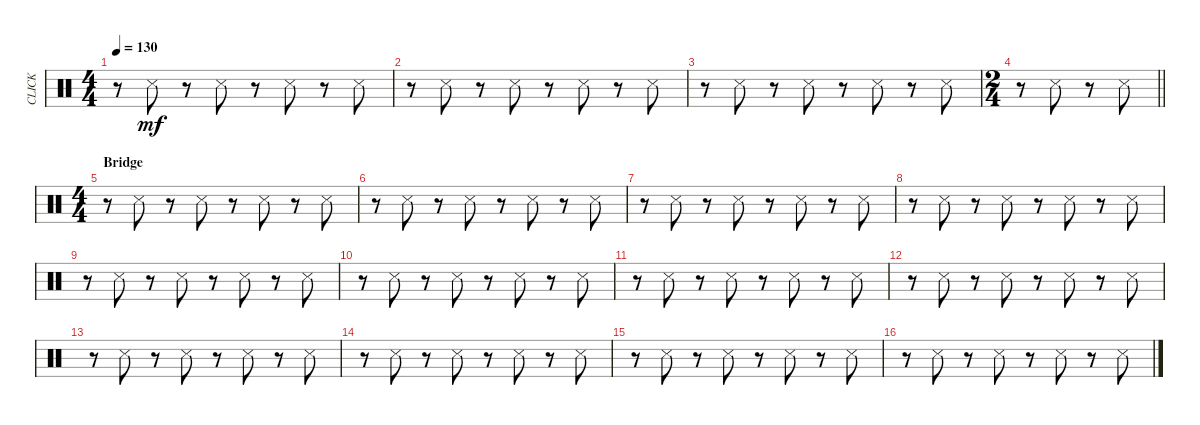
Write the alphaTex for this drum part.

\track ("CLICK" "CLICK") {instrument percussion}
\staff {score}
\articulation defaults
\ts (4 4)
\tempo 130
\clef neutral
\ks c
r.8{dy mf} "Snare (side stick) 3".8 r.8 "Snare (side stick) 3".8 r.8 "Snare (side stick) 3".8 r.8 "Snare (side stick) 3".8 |
r.8 "Snare (side stick) 3".8 r.8 "Snare (side stick) 3".8 r.8 "Snare (side stick) 3".8 r.8 "Snare (side stick) 3".8 |
r.8 "Snare (side stick) 3".8 r.8 "Snare (side stick) 3".8 r.8 "Snare (side stick) 3".8 r.8 "Snare (side stick) 3".8 |
\ts (2 4)
\barLineRight lightlight
r.8 "Snare (side stick) 3".8 r.8 "Snare (side stick) 3".8 |
\ts (4 4)
\section ("" "Bridge")
r.8 "Snare (side stick) 3".8 r.8 "Snare (side stick) 3".8 r.8 "Snare (side stick) 3".8 r.8 "Snare (side stick) 3".8 |
r.8 "Snare (side stick) 3".8 r.8 "Snare (side stick) 3".8 r.8 "Snare (side stick) 3".8 r.8 "Snare (side stick) 3".8 |
r.8 "Snare (side stick) 3".8 r.8 "Snare (side stick) 3".8 r.8 "Snare (side stick) 3".8 r.8 "Snare (side stick) 3".8 |
r.8 "Snare (side stick) 3".8 r.8 "Snare (side stick) 3".8 r.8 "Snare (side stick) 3".8 r.8 "Snare (side stick) 3".8 |
r.8 "Snare (side stick) 3".8 r.8 "Snare (side stick) 3".8 r.8 "Snare (side stick) 3".8 r.8 "Snare (side stick) 3".8 |
r.8 "Snare (side stick) 3".8 r.8 "Snare (side stick) 3".8 r.8 "Snare (side stick) 3".8 r.8 "Snare (side stick) 3".8 |
r.8 "Snare (side stick) 3".8 r.8 "Snare (side stick) 3".8 r.8 "Snare (side stick) 3".8 r.8 "Snare (side stick) 3".8 |
r.8 "Snare (side stick) 3".8 r.8 "Snare (side stick) 3".8 r.8 "Snare (side stick) 3".8 r.8 "Snare (side stick) 3".8 |
r.8 "Snare (side stick) 3".8 r.8 "Snare (side stick) 3".8 r.8 "Snare (side stick) 3".8 r.8 "Snare (side stick) 3".8 |
r.8 "Snare (side stick) 3".8 r.8 "Snare (side stick) 3".8 r.8 "Snare (side stick) 3".8 r.8 "Snare (side stick) 3".8 |
r.8 "Snare (side stick) 3".8 r.8 "Snare (side stick) 3".8 r.8 "Snare (side stick) 3".8 r.8 "Snare (side stick) 3".8 |
r.8 "Snare (side stick) 3".8 r.8 "Snare (side stick) 3".8 r.8 "Snare (side stick) 3".8 r.8 "Snare (side stick) 3".8
